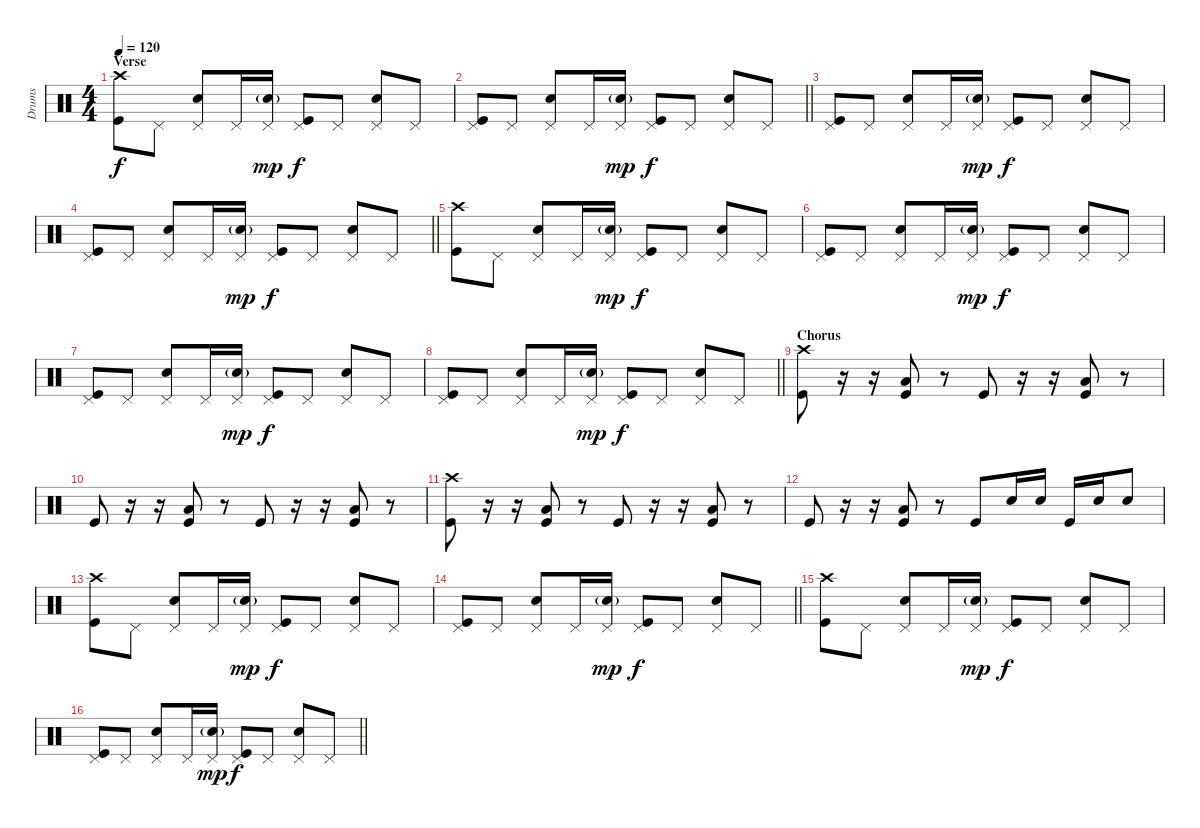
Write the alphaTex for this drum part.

\track ("Drums" "Drums") {instrument percussion}
\staff {score}
\articulation defaults
\ts (4 4)
\section ("" "Verse")
\tempo 120
\clef neutral
\ks c
("Crash high (hit)" "Kick (hit)").8{dy f} "Pedal Hi-Hat (hit)".8 ("Snare (hit) 2" "Pedal Hi-Hat (hit)").8 "Pedal Hi-Hat (hit)".16 ("Snare (hit) 2"{g} "Pedal Hi-Hat (hit)").16{dy mp} ("Kick (hit)" "Pedal Hi-Hat (hit)").8{dy f} "Pedal Hi-Hat (hit)".8 ("Snare (hit) 2" "Pedal Hi-Hat (hit)").8 "Pedal Hi-Hat (hit)".8 |
\barLineRight lightlight
("Kick (hit)" "Pedal Hi-Hat (hit)").8 "Pedal Hi-Hat (hit)".8 ("Snare (hit) 2" "Pedal Hi-Hat (hit)").8 "Pedal Hi-Hat (hit)".16 ("Snare (hit) 2"{g} "Pedal Hi-Hat (hit)").16{dy mp} ("Kick (hit)" "Pedal Hi-Hat (hit)").8{dy f} "Pedal Hi-Hat (hit)".8 ("Snare (hit) 2" "Pedal Hi-Hat (hit)").8 "Pedal Hi-Hat (hit)".8 |
("Kick (hit)" "Pedal Hi-Hat (hit)").8 "Pedal Hi-Hat (hit)".8 ("Snare (hit) 2" "Pedal Hi-Hat (hit)").8 "Pedal Hi-Hat (hit)".16 ("Snare (hit) 2"{g} "Pedal Hi-Hat (hit)").16{dy mp} ("Kick (hit)" "Pedal Hi-Hat (hit)").8{dy f} "Pedal Hi-Hat (hit)".8 ("Snare (hit) 2" "Pedal Hi-Hat (hit)").8 "Pedal Hi-Hat (hit)".8 |
\barLineRight lightlight
("Kick (hit)" "Pedal Hi-Hat (hit)").8 "Pedal Hi-Hat (hit)".8 ("Snare (hit) 2" "Pedal Hi-Hat (hit)").8 "Pedal Hi-Hat (hit)".16 ("Snare (hit) 2"{g} "Pedal Hi-Hat (hit)").16{dy mp} ("Kick (hit)" "Pedal Hi-Hat (hit)").8{dy f} "Pedal Hi-Hat (hit)".8 ("Snare (hit) 2" "Pedal Hi-Hat (hit)").8 "Pedal Hi-Hat (hit)".8 |
("Crash high (hit)" "Kick (hit)").8 "Pedal Hi-Hat (hit)".8 ("Snare (hit) 2" "Pedal Hi-Hat (hit)").8 "Pedal Hi-Hat (hit)".16 ("Snare (hit) 2"{g} "Pedal Hi-Hat (hit)").16{dy mp} ("Kick (hit)" "Pedal Hi-Hat (hit)").8{dy f} "Pedal Hi-Hat (hit)".8 ("Snare (hit) 2" "Pedal Hi-Hat (hit)").8 "Pedal Hi-Hat (hit)".8 |
("Kick (hit)" "Pedal Hi-Hat (hit)").8 "Pedal Hi-Hat (hit)".8 ("Snare (hit) 2" "Pedal Hi-Hat (hit)").8 "Pedal Hi-Hat (hit)".16 ("Snare (hit) 2"{g} "Pedal Hi-Hat (hit)").16{dy mp} ("Kick (hit)" "Pedal Hi-Hat (hit)").8{dy f} "Pedal Hi-Hat (hit)".8 ("Snare (hit) 2" "Pedal Hi-Hat (hit)").8 "Pedal Hi-Hat (hit)".8 |
("Kick (hit)" "Pedal Hi-Hat (hit)").8 "Pedal Hi-Hat (hit)".8 ("Snare (hit) 2" "Pedal Hi-Hat (hit)").8 "Pedal Hi-Hat (hit)".16 ("Snare (hit) 2"{g} "Pedal Hi-Hat (hit)").16{dy mp} ("Kick (hit)" "Pedal Hi-Hat (hit)").8{dy f} "Pedal Hi-Hat (hit)".8 ("Snare (hit) 2" "Pedal Hi-Hat (hit)").8 "Pedal Hi-Hat (hit)".8 |
\barLineRight lightlight
("Kick (hit)" "Pedal Hi-Hat (hit)").8 "Pedal Hi-Hat (hit)".8 ("Snare (hit) 2" "Pedal Hi-Hat (hit)").8 "Pedal Hi-Hat (hit)".16 ("Snare (hit) 2"{g} "Pedal Hi-Hat (hit)").16{dy mp} ("Kick (hit)" "Pedal Hi-Hat (hit)").8{dy f} "Pedal Hi-Hat (hit)".8 ("Snare (hit) 2" "Pedal Hi-Hat (hit)").8 "Pedal Hi-Hat (hit)".8 |
\section ("" "Chorus")
("Kick (hit)" "Crash high (hit)").8 r.16 r.16 ("Kick (hit)" "Low Tom (hit)").8 r.8 "Kick (hit)".8 r.16 r.16 ("Kick (hit)" "Low Tom (hit)").8 r.8 |
"Kick (hit)".8 r.16 r.16 ("Kick (hit)" "Low Tom (hit)").8 r.8 "Kick (hit)".8 r.16 r.16 ("Kick (hit)" "Low Tom (hit)").8 r.8 |
("Kick (hit)" "Crash high (hit)").8 r.16 r.16 ("Kick (hit)" "Low Tom (hit)").8 r.8 "Kick (hit)".8 r.16 r.16 ("Kick (hit)" "Low Tom (hit)").8 r.8 |
"Kick (hit)".8 r.16 r.16 ("Kick (hit)" "Low Tom (hit)").8 r.8 "Kick (hit)".8 "Snare (hit) 2".16 "Snare (hit) 2".16 "Kick (hit)".16 "Snare (hit) 2".16 "Snare (hit) 2".8 |
("Crash high (hit)" "Kick (hit)").8 "Pedal Hi-Hat (hit)".8 ("Snare (hit) 2" "Pedal Hi-Hat (hit)").8 "Pedal Hi-Hat (hit)".16 ("Snare (hit) 2"{g} "Pedal Hi-Hat (hit)").16{dy mp} ("Kick (hit)" "Pedal Hi-Hat (hit)").8{dy f} "Pedal Hi-Hat (hit)".8 ("Snare (hit) 2" "Pedal Hi-Hat (hit)").8 "Pedal Hi-Hat (hit)".8 |
\barLineRight lightlight
("Kick (hit)" "Pedal Hi-Hat (hit)").8 "Pedal Hi-Hat (hit)".8 ("Snare (hit) 2" "Pedal Hi-Hat (hit)").8 "Pedal Hi-Hat (hit)".16 ("Snare (hit) 2"{g} "Pedal Hi-Hat (hit)").16{dy mp} ("Kick (hit)" "Pedal Hi-Hat (hit)").8{dy f} "Pedal Hi-Hat (hit)".8 ("Snare (hit) 2" "Pedal Hi-Hat (hit)").8 "Pedal Hi-Hat (hit)".8 |
("Crash high (hit)" "Kick (hit)").8 "Pedal Hi-Hat (hit)".8 ("Snare (hit) 2" "Pedal Hi-Hat (hit)").8 "Pedal Hi-Hat (hit)".16 ("Snare (hit) 2"{g} "Pedal Hi-Hat (hit)").16{dy mp} ("Kick (hit)" "Pedal Hi-Hat (hit)").8{dy f} "Pedal Hi-Hat (hit)".8 ("Snare (hit) 2" "Pedal Hi-Hat (hit)").8 "Pedal Hi-Hat (hit)".8 |
\barLineRight lightlight
("Kick (hit)" "Pedal Hi-Hat (hit)").8 "Pedal Hi-Hat (hit)".8 ("Snare (hit) 2" "Pedal Hi-Hat (hit)").8 "Pedal Hi-Hat (hit)".16 ("Snare (hit) 2"{g} "Pedal Hi-Hat (hit)").16{dy mp} ("Kick (hit)" "Pedal Hi-Hat (hit)").8{dy f} "Pedal Hi-Hat (hit)".8 ("Snare (hit) 2" "Pedal Hi-Hat (hit)").8 "Pedal Hi-Hat (hit)".8
